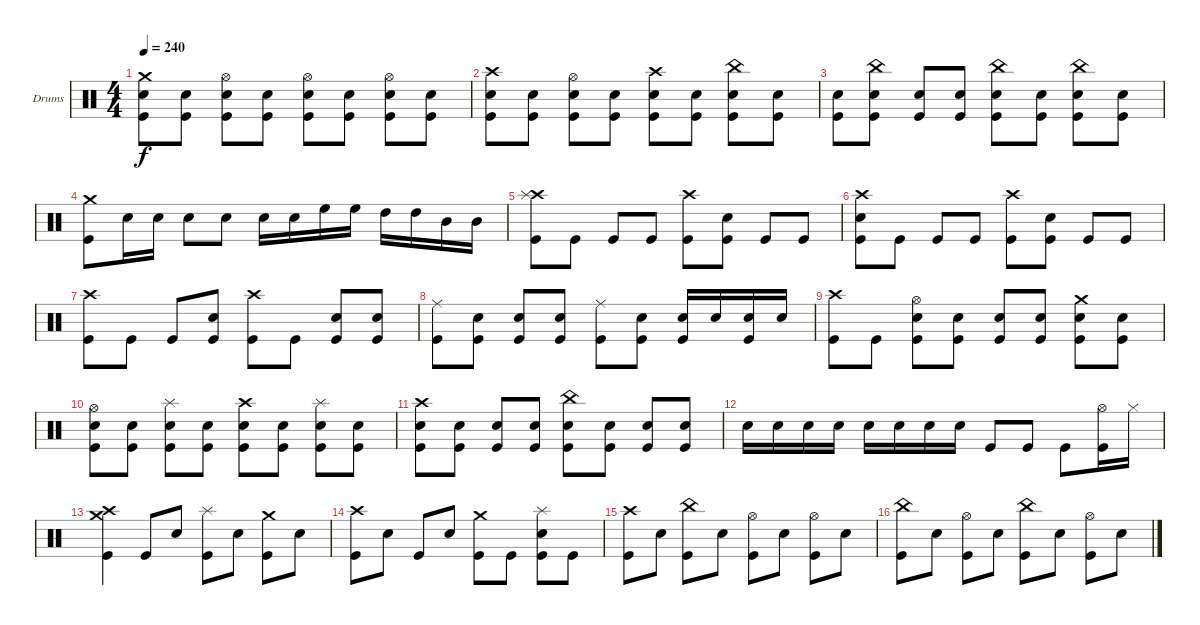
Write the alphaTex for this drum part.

\bracketExtendMode groupsimilarinstruments
\firstSystemTrackNameOrientation horizontal
\otherSystemsTrackNameOrientation horizontal
\track ("Drumkit" "Drums") {instrument percussion}
\staff {score}
\articulation defaults
\ts (4 4)
\tempo 240
\clef neutral
\ks c
("Crash medium (hit)" "Snare (hit) 2" "Kick (hit)").8{dy f} ("Snare (hit) 2" "Kick (hit)").8 ("Hi-Hat (open)" "Snare (hit) 2" "Kick (hit)").8 ("Snare (hit) 2" "Kick (hit)").8 ("Hi-Hat (open)" "Snare (hit) 2" "Kick (hit)").8 ("Snare (hit) 2" "Kick (hit)").8 ("Hi-Hat (open)" "Snare (hit) 2" "Kick (hit)").8 ("Snare (hit) 2" "Kick (hit)").8 |
("Crash high (hit)" "Snare (hit) 2" "Kick (hit)").8 ("Snare (hit) 2" "Kick (hit)").8 ("Hi-Hat (open)" "Snare (hit) 2" "Kick (hit)").8 ("Snare (hit) 2" "Kick (hit)").8 ("Crash high (hit)" "Snare (hit) 2" "Kick (hit)").8 ("Snare (hit) 2" "Kick (hit)").8 ("China (hit)" "Snare (hit) 2" "Kick (hit)").8 ("Snare (hit) 2" "Kick (hit)").8 |
("Snare (hit) 2" "Kick (hit)").8 ("China (hit)" "Snare (hit) 2" "Kick (hit)").8 ("Snare (hit) 2" "Kick (hit)").8 ("Snare (hit) 2" "Kick (hit)").8 ("China (hit)" "Snare (hit) 2" "Kick (hit)").8 ("Snare (hit) 2" "Kick (hit)").8 ("China (hit)" "Snare (hit) 2" "Kick (hit)").8 ("Snare (hit) 2" "Kick (hit)").8 |
("Crash medium (hit)" "Kick (hit)").8 "Snare (hit) 2".16 "Snare (hit) 2".16 "Snare (hit) 2".8 "Snare (hit) 2".8 "Snare (hit) 2".16 "Snare (hit) 2".16 "High Floor Tom (hit)".16 "High Floor Tom (hit)".16 "High Tom (hit)".16 "High Tom (hit)".16 "Mid Tom (hit)".16 "Mid Tom (hit)".16 |
("Crash high (hit)" "Splash (hit)" "Kick (hit)").8 "Kick (hit)".8 "Kick (hit)".8 "Kick (hit)".8 ("Crash high (hit)" "Kick (hit)").8 ("Snare (hit) 2" "Kick (hit)").8 "Kick (hit)".8 "Kick (hit)".8 |
("Crash high (hit)" "Snare (hit) 2" "Kick (hit)").8 "Kick (hit)".8 "Kick (hit)".8 "Kick (hit)".8 ("Crash high (hit)" "Kick (hit)").8 ("Snare (hit) 2" "Kick (hit)").8 "Kick (hit)".8 "Kick (hit)".8 |
("Crash high (hit)" "Kick (hit)").8 "Kick (hit)".8 "Kick (hit)".8 ("Snare (hit) 2" "Kick (hit)").8 ("Crash high (hit)" "Kick (hit)").8 "Kick (hit)".8 ("Snare (hit) 2" "Kick (hit)").8 ("Snare (hit) 2" "Kick (hit)").8 |
("Ride (middle)" "Kick (hit)").8 ("Snare (hit) 2" "Kick (hit)").8 ("Snare (hit) 2" "Kick (hit)").8 ("Snare (hit) 2" "Kick (hit)").8 ("Ride (middle)" "Kick (hit)").8 ("Snare (hit) 2" "Kick (hit)").8 ("Snare (hit) 2" "Kick (hit)").16 "Snare (hit) 2".16 ("Snare (hit) 2" "Kick (hit)").16 "Snare (hit) 2".16 |
("Crash high (hit)" "Kick (hit)").8 "Kick (hit)".8 ("Hi-Hat (open)" "Snare (hit) 2" "Kick (hit)").8 ("Snare (hit) 2" "Kick (hit)").8 ("Snare (hit) 2" "Kick (hit)").8 ("Snare (hit) 2" "Kick (hit)").8 ("Crash medium (hit)" "Snare (hit) 2" "Kick (hit)").8 ("Snare (hit) 2" "Kick (hit)").8 |
("Hi-Hat (open)" "Snare (hit) 2" "Kick (hit)").8 ("Snare (hit) 2" "Kick (hit)").8 ("Splash (hit)" "Snare (hit) 2" "Kick (hit)").8 ("Snare (hit) 2" "Kick (hit)").8 ("Crash high (hit)" "Snare (hit) 2" "Kick (hit)").8 ("Snare (hit) 2" "Kick (hit)").8 ("Splash (hit)" "Snare (hit) 2" "Kick (hit)").8 ("Snare (hit) 2" "Kick (hit)").8 |
("Crash high (hit)" "Snare (hit) 2" "Kick (hit)").8 ("Snare (hit) 2" "Kick (hit)").8 ("Snare (hit) 2" "Kick (hit)").8 ("Snare (hit) 2" "Kick (hit)").8 ("China (hit)" "Snare (hit) 2" "Kick (hit)").8 ("Snare (hit) 2" "Kick (hit)").8 ("Snare (hit) 2" "Kick (hit)").8 ("Snare (hit) 2" "Kick (hit)").8 |
"Snare (hit) 2".16 "Snare (hit) 2".16 "Snare (hit) 2".16 "Snare (hit) 2".16 "Snare (hit) 2".16 "Snare (hit) 2".16 "Snare (hit) 2".16 "Snare (hit) 2".16 "Kick (hit)".8 "Kick (hit)".8 "Kick (hit)".8 ("Hi-Hat (open)" "Kick (hit)").16 "Hi-Hat (closed)".16 |
("Crash medium (hit)" "Crash high (hit)" "Kick (hit)").4 "Kick (hit)".8 "Snare (hit) 2".8 ("Splash (hit)" "Kick (hit)").8 "Snare (hit) 2".8 ("Crash medium (hit)" "Kick (hit)").8 "Snare (hit) 2".8 |
("Crash high (hit)" "Kick (hit)").8 "Snare (hit) 2".8 "Kick (hit)".8 "Snare (hit) 2".8 ("Crash medium (hit)" "Kick (hit)").8 "Kick (hit)".8 ("Splash (hit)" "Snare (hit) 2" "Kick (hit)").8 "Kick (hit)".8 |
("Crash high (hit)" "Kick (hit)").8 "Snare (hit) 2".8 ("China (hit)" "Kick (hit)").8 "Snare (hit) 2".8 ("Hi-Hat (open)" "Kick (hit)").8 "Snare (hit) 2".8 ("Hi-Hat (open)" "Kick (hit)").8 "Snare (hit) 2".8 |
("China (hit)" "Kick (hit)").8 "Snare (hit) 2".8 ("Hi-Hat (open)" "Kick (hit)").8 "Snare (hit) 2".8 ("China (hit)" "Kick (hit)").8 "Snare (hit) 2".8 ("Hi-Hat (open)" "Kick (hit)").8 "Snare (hit) 2".8
